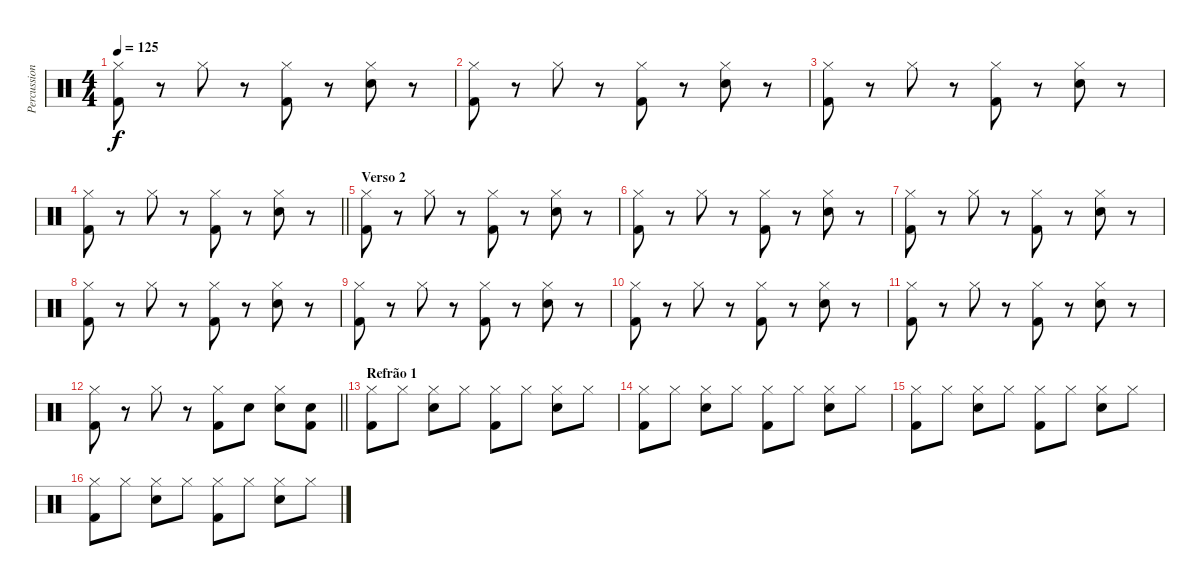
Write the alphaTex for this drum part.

\track ("Percussion" "Percussion") {instrument percussion}
\staff {score}
\articulation defaults
\ts (4 4)
\tempo 125
\clef neutral
\ks c
("Kick (hit) 2" "Hi-Hat (closed)").8{dy f} r.8 "Hi-Hat (closed)".8 r.8 ("Kick (hit) 2" "Hi-Hat (closed)").8 r.8 ("Electric Snare (hit)" "Hi-Hat (closed)").8 r.8 |
("Kick (hit) 2" "Hi-Hat (closed)").8 r.8 "Hi-Hat (closed)".8 r.8 ("Kick (hit) 2" "Hi-Hat (closed)").8 r.8 ("Electric Snare (hit)" "Hi-Hat (closed)").8 r.8 |
("Kick (hit) 2" "Hi-Hat (closed)").8 r.8 "Hi-Hat (closed)".8 r.8 ("Kick (hit) 2" "Hi-Hat (closed)").8 r.8 ("Electric Snare (hit)" "Hi-Hat (closed)").8 r.8 |
\barLineRight lightlight
("Kick (hit) 2" "Hi-Hat (closed)").8 r.8 "Hi-Hat (closed)".8 r.8 ("Kick (hit) 2" "Hi-Hat (closed)").8 r.8 ("Electric Snare (hit)" "Hi-Hat (closed)").8 r.8 |
\section ("" "Verso 2")
("Kick (hit) 2" "Hi-Hat (closed)").8 r.8 "Hi-Hat (closed)".8 r.8 ("Kick (hit) 2" "Hi-Hat (closed)").8 r.8 ("Electric Snare (hit)" "Hi-Hat (closed)").8 r.8 |
("Kick (hit) 2" "Hi-Hat (closed)").8 r.8 "Hi-Hat (closed)".8 r.8 ("Kick (hit) 2" "Hi-Hat (closed)").8 r.8 ("Electric Snare (hit)" "Hi-Hat (closed)").8 r.8 |
("Kick (hit) 2" "Hi-Hat (closed)").8 r.8 "Hi-Hat (closed)".8 r.8 ("Kick (hit) 2" "Hi-Hat (closed)").8 r.8 ("Electric Snare (hit)" "Hi-Hat (closed)").8 r.8 |
("Kick (hit) 2" "Hi-Hat (closed)").8 r.8 "Hi-Hat (closed)".8 r.8 ("Kick (hit) 2" "Hi-Hat (closed)").8 r.8 ("Electric Snare (hit)" "Hi-Hat (closed)").8 r.8 |
("Kick (hit) 2" "Hi-Hat (closed)").8 r.8 "Hi-Hat (closed)".8 r.8 ("Kick (hit) 2" "Hi-Hat (closed)").8 r.8 ("Electric Snare (hit)" "Hi-Hat (closed)").8 r.8 |
("Kick (hit) 2" "Hi-Hat (closed)").8 r.8 "Hi-Hat (closed)".8 r.8 ("Kick (hit) 2" "Hi-Hat (closed)").8 r.8 ("Electric Snare (hit)" "Hi-Hat (closed)").8 r.8 |
("Kick (hit) 2" "Hi-Hat (closed)").8 r.8 "Hi-Hat (closed)".8 r.8 ("Kick (hit) 2" "Hi-Hat (closed)").8 r.8 ("Electric Snare (hit)" "Hi-Hat (closed)").8 r.8 |
\barLineRight lightlight
("Kick (hit) 2" "Hi-Hat (closed)").8 r.8 "Hi-Hat (closed)".8 r.8 ("Kick (hit) 2" "Hi-Hat (closed)").8 "Electric Snare (hit)".8 ("Electric Snare (hit)" "Hi-Hat (closed)").8 ("Electric Snare (hit)" "Kick (hit) 2").8 |
\section ("" "Refrão 1")
("Kick (hit) 2" "Hi-Hat (closed)").8 "Hi-Hat (closed)".8 ("Electric Snare (hit)" "Hi-Hat (closed)").8 "Hi-Hat (closed)".8 ("Kick (hit) 2" "Hi-Hat (closed)").8 "Hi-Hat (closed)".8 ("Electric Snare (hit)" "Hi-Hat (closed)").8 "Hi-Hat (closed)".8 |
("Kick (hit) 2" "Hi-Hat (closed)").8 "Hi-Hat (closed)".8 ("Electric Snare (hit)" "Hi-Hat (closed)").8 "Hi-Hat (closed)".8 ("Kick (hit) 2" "Hi-Hat (closed)").8 "Hi-Hat (closed)".8 ("Electric Snare (hit)" "Hi-Hat (closed)").8 "Hi-Hat (closed)".8 |
("Kick (hit) 2" "Hi-Hat (closed)").8 "Hi-Hat (closed)".8 ("Electric Snare (hit)" "Hi-Hat (closed)").8 "Hi-Hat (closed)".8 ("Kick (hit) 2" "Hi-Hat (closed)").8 "Hi-Hat (closed)".8 ("Electric Snare (hit)" "Hi-Hat (closed)").8 "Hi-Hat (closed)".8 |
("Kick (hit) 2" "Hi-Hat (closed)").8 "Hi-Hat (closed)".8 ("Electric Snare (hit)" "Hi-Hat (closed)").8 "Hi-Hat (closed)".8 ("Kick (hit) 2" "Hi-Hat (closed)").8 "Hi-Hat (closed)".8 ("Electric Snare (hit)" "Hi-Hat (closed)").8 "Hi-Hat (closed)".8
